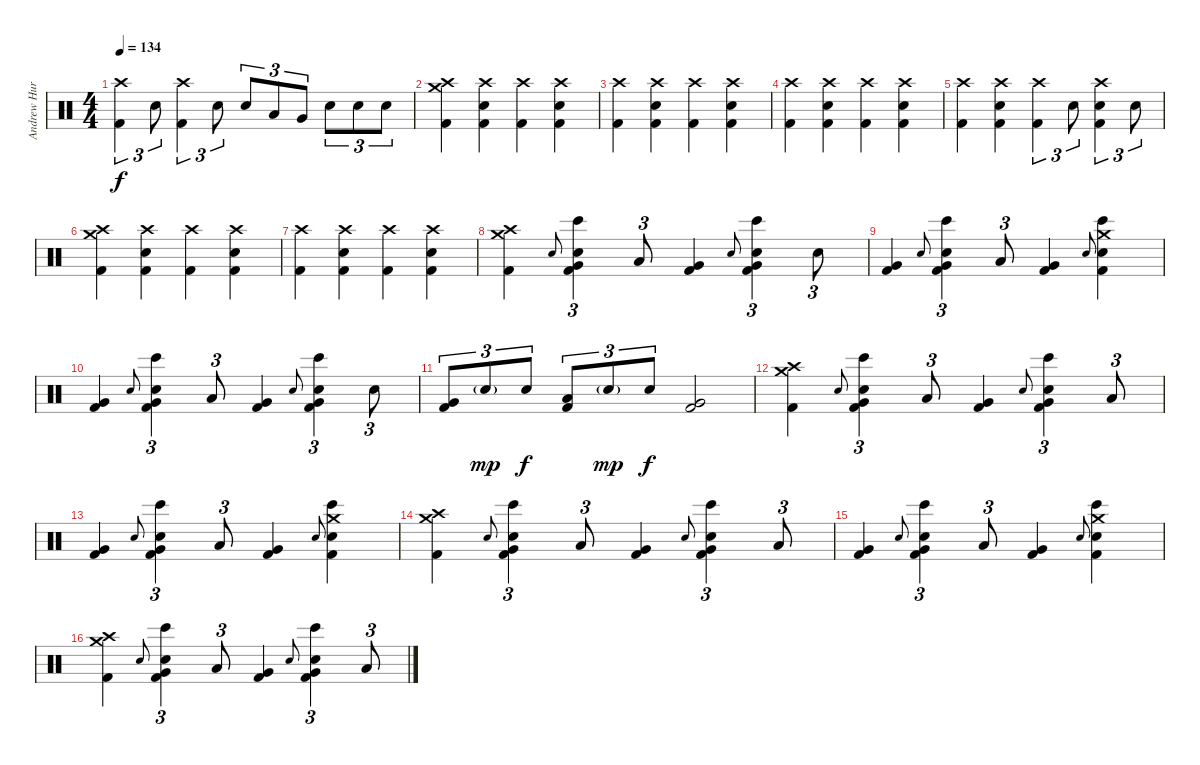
\track ("Andrew Hurley (Drums)" "Andrew Hur") {instrument percussion}
\staff {score}
\articulation defaults
\ts (4 4)
\tempo 134
\clef neutral
\ks c
("Crash high (hit)" "Kick (hit) 2").4{tu (3 2) dy f} "Snare (hit) 2".8{tu (3 2)} ("Crash high (hit)" "Kick (hit) 2").4{tu (3 2)} "Snare (hit) 2".8{tu (3 2)} "Snare (hit) 2".8{tu (3 2)} "Low Tom (hit)".8{tu (3 2)} "Very Low Tom (hit)".8{tu (3 2)} "Snare (hit) 2".8{tu (3 2)} "Snare (hit) 2".8{tu (3 2)} "Snare (hit) 2".8{tu (3 2)} |
("Crash high (hit)" "Crash medium (hit)" "Kick (hit) 2").4 ("Crash high (hit)" "Snare (hit) 2" "Kick (hit) 2").4 ("Crash high (hit)" "Kick (hit) 2").4 ("Crash high (hit)" "Snare (hit) 2" "Kick (hit) 2").4 |
("Crash high (hit)" "Kick (hit) 2").4 ("Crash high (hit)" "Snare (hit) 2" "Kick (hit) 2").4 ("Crash high (hit)" "Kick (hit) 2").4 ("Crash high (hit)" "Snare (hit) 2" "Kick (hit) 2").4 |
("Crash high (hit)" "Kick (hit) 2").4 ("Crash high (hit)" "Snare (hit) 2" "Kick (hit) 2").4 ("Crash high (hit)" "Kick (hit) 2").4 ("Crash high (hit)" "Snare (hit) 2" "Kick (hit) 2").4 |
("Crash high (hit)" "Kick (hit) 2").4 ("Crash high (hit)" "Snare (hit) 2" "Kick (hit) 2").4 ("Crash high (hit)" "Kick (hit) 2").4{tu (3 2)} "Snare (hit) 2".8{tu (3 2)} ("Crash high (hit)" "Snare (hit) 2" "Kick (hit) 2").4{tu (3 2)} "Snare (hit) 2".8{tu (3 2)} |
("Crash high (hit)" "Crash medium (hit)" "Kick (hit) 2").4 ("Crash high (hit)" "Snare (hit) 2" "Kick (hit) 2").4 ("Crash high (hit)" "Kick (hit) 2").4 ("Crash high (hit)" "Snare (hit) 2" "Kick (hit) 2").4 |
("Crash high (hit)" "Kick (hit) 2").4 ("Crash high (hit)" "Snare (hit) 2" "Kick (hit) 2").4 ("Crash high (hit)" "Kick (hit) 2").4 ("Crash high (hit)" "Snare (hit) 2" "Kick (hit) 2").4 |
("Crash high (hit)" "Crash medium (hit)" "Kick (hit) 2").4 "Snare (hit)".8{gr onbeat} ("Very Low Tom (hit)" "Snare (hit) 2" "Kick (hit) 2" "Bongo High (hit)").4{tu (3 2)} "Low Tom (hit)".8{tu (3 2)} ("Very Low Tom (hit)" "Kick (hit) 2").4 "Snare (hit)".8{gr onbeat} ("Very Low Tom (hit)" "Snare (hit) 2" "Kick (hit) 2" "Bongo High (hit)").4{tu (3 2)} "Snare (hit) 2".8{tu (3 2)} |
("Very Low Tom (hit)" "Kick (hit) 2").4 "Snare (hit)".8{gr onbeat} ("Very Low Tom (hit)" "Snare (hit) 2" "Kick (hit) 2" "Bongo High (hit)").4{tu (3 2)} "Low Tom (hit)".8{tu (3 2)} ("Very Low Tom (hit)" "Kick (hit) 2").4 "Snare (hit)".8{gr onbeat} ("Crash medium (hit)" "Snare (hit) 2" "Kick (hit) 2" "Bongo High (hit)").4 |
("Very Low Tom (hit)" "Kick (hit) 2").4 "Snare (hit)".8{gr onbeat} ("Very Low Tom (hit)" "Snare (hit) 2" "Kick (hit) 2" "Bongo High (hit)").4{tu (3 2)} "Low Tom (hit)".8{tu (3 2)} ("Very Low Tom (hit)" "Kick (hit) 2").4 "Snare (hit)".8{gr onbeat} ("Very Low Tom (hit)" "Snare (hit) 2" "Kick (hit) 2" "Bongo High (hit)").4{tu (3 2)} "Snare (hit) 2".8{tu (3 2)} |
("Very Low Tom (hit)" "Kick (hit) 2").8{tu (3 2)} "Snare (hit) 2"{g}.8{tu (3 2) dy mp} "Snare (hit) 2".8{tu (3 2) dy f} ("Low Tom (hit)" "Kick (hit) 2").8{tu (3 2)} "Snare (hit) 2"{g}.8{tu (3 2) dy mp} "Snare (hit) 2".8{tu (3 2) dy f} ("Very Low Tom (hit)" "Kick (hit) 2").2 |
("Crash high (hit)" "Crash medium (hit)" "Kick (hit) 2").4 "Snare (hit)".8{gr onbeat} ("Very Low Tom (hit)" "Snare (hit) 2" "Kick (hit) 2" "Bongo High (hit)").4{tu (3 2)} "Low Tom (hit)".8{tu (3 2)} ("Very Low Tom (hit)" "Kick (hit) 2").4 "Snare (hit)".8{gr onbeat} ("Very Low Tom (hit)" "Snare (hit) 2" "Kick (hit) 2" "Bongo High (hit)").4{tu (3 2)} "Low Tom (hit)".8{tu (3 2)} |
("Very Low Tom (hit)" "Kick (hit) 2").4 "Snare (hit)".8{gr onbeat} ("Very Low Tom (hit)" "Snare (hit) 2" "Kick (hit) 2" "Bongo High (hit)").4{tu (3 2)} "Low Tom (hit)".8{tu (3 2)} ("Very Low Tom (hit)" "Kick (hit) 2").4 "Snare (hit)".8{gr onbeat} ("Crash medium (hit)" "Snare (hit) 2" "Kick (hit) 2" "Bongo High (hit)").4 |
("Crash high (hit)" "Crash medium (hit)" "Kick (hit) 2").4 "Snare (hit)".8{gr onbeat} ("Very Low Tom (hit)" "Snare (hit) 2" "Kick (hit) 2" "Bongo High (hit)").4{tu (3 2)} "Low Tom (hit)".8{tu (3 2)} ("Very Low Tom (hit)" "Kick (hit) 2").4 "Snare (hit)".8{gr onbeat} ("Very Low Tom (hit)" "Snare (hit) 2" "Kick (hit) 2" "Bongo High (hit)").4{tu (3 2)} "Low Tom (hit)".8{tu (3 2)} |
("Very Low Tom (hit)" "Kick (hit) 2").4 "Snare (hit)".8{gr onbeat} ("Very Low Tom (hit)" "Snare (hit) 2" "Kick (hit) 2" "Bongo High (hit)").4{tu (3 2)} "Low Tom (hit)".8{tu (3 2)} ("Very Low Tom (hit)" "Kick (hit) 2").4 "Snare (hit)".8{gr onbeat} ("Crash medium (hit)" "Snare (hit) 2" "Kick (hit) 2" "Bongo High (hit)").4 |
("Crash high (hit)" "Crash medium (hit)" "Kick (hit) 2").4 "Snare (hit)".8{gr onbeat} ("Very Low Tom (hit)" "Snare (hit) 2" "Kick (hit) 2" "Bongo High (hit)").4{tu (3 2)} "Low Tom (hit)".8{tu (3 2)} ("Very Low Tom (hit)" "Kick (hit) 2").4 "Snare (hit)".8{gr onbeat} ("Very Low Tom (hit)" "Snare (hit) 2" "Kick (hit) 2" "Bongo High (hit)").4{tu (3 2)} "Low Tom (hit)".8{tu (3 2)}
